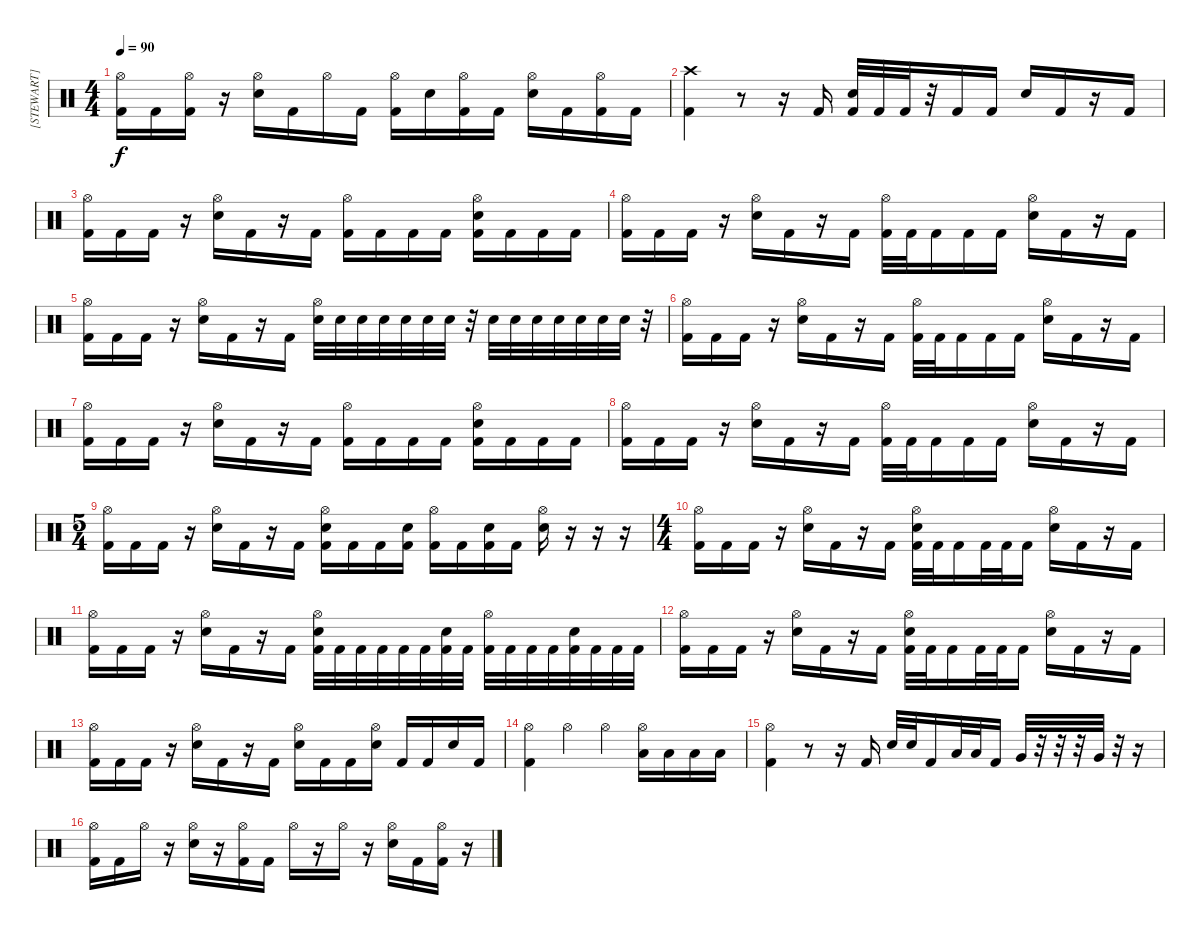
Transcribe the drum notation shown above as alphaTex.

\track ("[STEWART]" "[STEWART]") {instrument percussion}
\staff {score}
\articulation defaults
\ts (4 4)
\tempo 90
\clef neutral
\ks c
("Hi-Hat (open)" "Kick (hit) 2").16{dy f} "Kick (hit) 2".16 ("Hi-Hat (open)" "Kick (hit) 2").16 r.16 ("Hi-Hat (open)" "Snare (hit) 2").16 "Kick (hit) 2".16 "Hi-Hat (open)".16 "Kick (hit) 2".16 ("Hi-Hat (open)" "Kick (hit) 2").16 "Snare (hit) 2".16 ("Hi-Hat (open)" "Kick (hit) 2").16 "Kick (hit) 2".16 ("Hi-Hat (open)" "Snare (hit) 2").16 "Kick (hit) 2".16 ("Hi-Hat (open)" "Kick (hit) 2").16 "Kick (hit) 2".16 |
("Crash high (hit)" "Kick (hit) 2").4 r.8 r.16 "Kick (hit) 2".16 ("Snare (hit) 2" "Kick (hit) 2").32 "Kick (hit) 2".32 "Kick (hit) 2".32 r.32 "Kick (hit) 2".16 "Kick (hit) 2".16 "Snare (hit) 2".16 "Kick (hit) 2".16 r.16 "Kick (hit) 2".16 |
("Hi-Hat (open)" "Kick (hit) 2").16 "Kick (hit) 2".16 "Kick (hit) 2".16 r.16 ("Hi-Hat (open)" "Snare (hit) 2").16 "Kick (hit) 2".16 r.16 "Kick (hit) 2".16 ("Hi-Hat (open)" "Kick (hit) 2").16 "Kick (hit) 2".16 "Kick (hit) 2".16 "Kick (hit) 2".16 ("Hi-Hat (open)" "Snare (hit) 2" "Kick (hit) 2").16 "Kick (hit) 2".16 "Kick (hit) 2".16 "Kick (hit) 2".16 |
("Hi-Hat (open)" "Kick (hit) 2").16 "Kick (hit) 2".16 "Kick (hit) 2".16 r.16 ("Hi-Hat (open)" "Snare (hit) 2").16 "Kick (hit) 2".16 r.16 "Kick (hit) 2".16 ("Hi-Hat (open)" "Kick (hit) 2").32 "Kick (hit) 2".32 "Kick (hit) 2".16 "Kick (hit) 2".16 "Kick (hit) 2".16 ("Hi-Hat (open)" "Snare (hit) 2").16 "Kick (hit) 2".16 r.16 "Kick (hit) 2".16 |
("Hi-Hat (open)" "Kick (hit) 2").16 "Kick (hit) 2".16 "Kick (hit) 2".16 r.16 ("Hi-Hat (open)" "Snare (hit) 2").16 "Kick (hit) 2".16 r.16 "Kick (hit) 2".16 ("Hi-Hat (open)" "Snare (hit) 2").32 "Snare (hit) 2".32 "Snare (hit) 2".32 "Snare (hit) 2".32 "Snare (hit) 2".32 "Snare (hit) 2".32 "Snare (hit) 2".32 r.32 "Snare (hit) 2".32 "Snare (hit) 2".32 "Snare (hit) 2".32 "Snare (hit) 2".32 "Snare (hit) 2".32 "Snare (hit) 2".32 "Snare (hit) 2".32 r.32 |
("Hi-Hat (open)" "Kick (hit) 2").16 "Kick (hit) 2".16 "Kick (hit) 2".16 r.16 ("Hi-Hat (open)" "Snare (hit) 2").16 "Kick (hit) 2".16 r.16 "Kick (hit) 2".16 ("Hi-Hat (open)" "Kick (hit) 2").32 "Kick (hit) 2".32 "Kick (hit) 2".16 "Kick (hit) 2".16 "Kick (hit) 2".16 ("Hi-Hat (open)" "Snare (hit) 2").16 "Kick (hit) 2".16 r.16 "Kick (hit) 2".16 |
("Hi-Hat (open)" "Kick (hit) 2").16 "Kick (hit) 2".16 "Kick (hit) 2".16 r.16 ("Hi-Hat (open)" "Snare (hit) 2").16 "Kick (hit) 2".16 r.16 "Kick (hit) 2".16 ("Hi-Hat (open)" "Kick (hit) 2").16 "Kick (hit) 2".16 "Kick (hit) 2".16 "Kick (hit) 2".16 ("Hi-Hat (open)" "Snare (hit) 2" "Kick (hit) 2").16 "Kick (hit) 2".16 "Kick (hit) 2".16 "Kick (hit) 2".16 |
("Hi-Hat (open)" "Kick (hit) 2").16 "Kick (hit) 2".16 "Kick (hit) 2".16 r.16 ("Hi-Hat (open)" "Snare (hit) 2").16 "Kick (hit) 2".16 r.16 "Kick (hit) 2".16 ("Hi-Hat (open)" "Kick (hit) 2").32 "Kick (hit) 2".32 "Kick (hit) 2".16 "Kick (hit) 2".16 "Kick (hit) 2".16 ("Hi-Hat (open)" "Snare (hit) 2").16 "Kick (hit) 2".16 r.16 "Kick (hit) 2".16 |
\ts (5 4)
("Hi-Hat (open)" "Kick (hit) 2").16 "Kick (hit) 2".16 "Kick (hit) 2".16 r.16 ("Hi-Hat (open)" "Snare (hit) 2").16 "Kick (hit) 2".16 r.16 "Kick (hit) 2".16 ("Hi-Hat (open)" "Snare (hit) 2" "Kick (hit) 2").16 "Kick (hit) 2".16 "Kick (hit) 2".16 ("Snare (hit) 2" "Kick (hit) 2").16 ("Hi-Hat (open)" "Kick (hit) 2").16 "Kick (hit) 2".16 ("Snare (hit) 2" "Kick (hit) 2").16 "Kick (hit) 2".16 ("Hi-Hat (open)" "Snare (hit) 2").16 r.16 r.16 r.16 |
\ts (4 4)
("Hi-Hat (open)" "Kick (hit) 2").16 "Kick (hit) 2".16 "Kick (hit) 2".16 r.16 ("Hi-Hat (open)" "Snare (hit) 2").16 "Kick (hit) 2".16 r.16 "Kick (hit) 2".16 ("Hi-Hat (open)" "Snare (hit) 2" "Kick (hit) 2").32 "Kick (hit) 2".32 "Kick (hit) 2".16 "Kick (hit) 2".32 "Kick (hit) 2".32 "Kick (hit) 2".16 ("Hi-Hat (open)" "Snare (hit) 2").16 "Kick (hit) 2".16 r.16 "Kick (hit) 2".16 |
("Hi-Hat (open)" "Kick (hit) 2").16 "Kick (hit) 2".16 "Kick (hit) 2".16 r.16 ("Hi-Hat (open)" "Snare (hit) 2").16 "Kick (hit) 2".16 r.16 "Kick (hit) 2".16 ("Hi-Hat (open)" "Snare (hit) 2" "Kick (hit) 2").32 "Kick (hit) 2".32 "Kick (hit) 2".32 "Kick (hit) 2".32 "Kick (hit) 2".32 "Kick (hit) 2".32 ("Snare (hit) 2" "Kick (hit) 2").32 "Kick (hit) 2".32 ("Hi-Hat (open)" "Kick (hit) 2").32 "Kick (hit) 2".32 "Kick (hit) 2".32 "Kick (hit) 2".32 ("Snare (hit) 2" "Kick (hit) 2").32 "Kick (hit) 2".32 "Kick (hit) 2".32 "Kick (hit) 2".32 |
("Hi-Hat (open)" "Kick (hit) 2").16 "Kick (hit) 2".16 "Kick (hit) 2".16 r.16 ("Hi-Hat (open)" "Snare (hit) 2").16 "Kick (hit) 2".16 r.16 "Kick (hit) 2".16 ("Hi-Hat (open)" "Snare (hit) 2" "Kick (hit) 2").32 "Kick (hit) 2".32 "Kick (hit) 2".16 "Kick (hit) 2".32 "Kick (hit) 2".32 "Kick (hit) 2".16 ("Hi-Hat (open)" "Snare (hit) 2").16 "Kick (hit) 2".16 r.16 "Kick (hit) 2".16 |
("Hi-Hat (open)" "Kick (hit) 2").16 "Kick (hit) 2".16 "Kick (hit) 2".16 r.16 ("Hi-Hat (open)" "Snare (hit) 2").16 "Kick (hit) 2".16 r.16 "Kick (hit) 2".16 ("Hi-Hat (open)" "Snare (hit) 2").16 "Kick (hit) 2".16 "Kick (hit) 2".16 ("Hi-Hat (open)" "Snare (hit) 2").16 "Kick (hit) 2".16 "Kick (hit) 2".16 "Snare (hit) 2".16 "Kick (hit) 2".16 |
("Hi-Hat (open)" "Kick (hit) 2").4 "Hi-Hat (open)".4 "Hi-Hat (open)".4 ("Hi-Hat (open)" "Low Floor Tom (hit)").16 "Low Floor Tom (hit)".16 "Low Floor Tom (hit)".16 "Low Floor Tom (hit)".16 |
("Hi-Hat (open)" "Kick (hit) 2").4 r.8 r.16 "Kick (hit) 2".16 "Snare (hit) 2".32 "Snare (hit) 2".32 "Kick (hit) 2".16 "Low Floor Tom (hit)".32 "Low Floor Tom (hit)".32 "Kick (hit) 2".16 "Very Low Tom (hit)".32 r.32 r.32 r.32 "Very Low Tom (hit)".32 r.32 r.16 |
("Hi-Hat (open)" "Kick (hit) 2").16 "Kick (hit) 2".16 "Hi-Hat (open)".16 r.16 ("Hi-Hat (open)" "Snare (hit) 2").16 r.16 ("Hi-Hat (open)" "Kick (hit) 2").16 "Kick (hit) 2".16 "Hi-Hat (open)".16 r.16 "Hi-Hat (open)".16 r.16 ("Hi-Hat (open)" "Snare (hit) 2").16 "Kick (hit) 2".16 ("Hi-Hat (open)" "Kick (hit) 2").16 r.16
